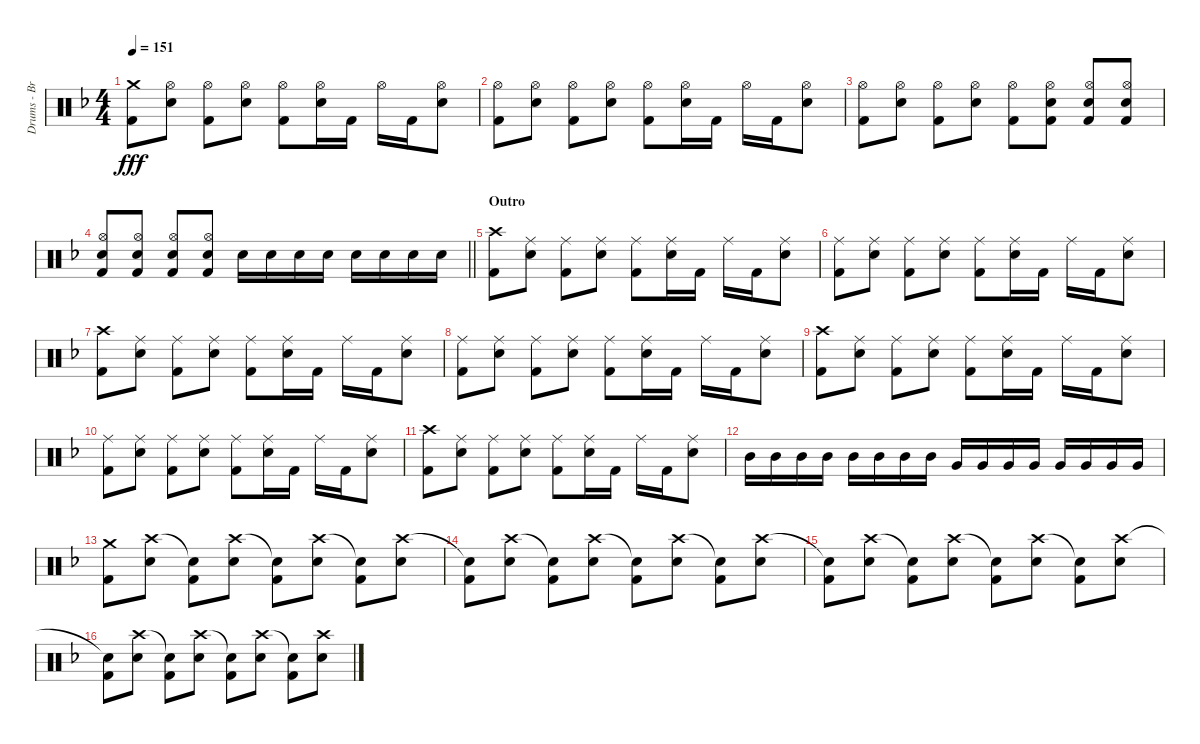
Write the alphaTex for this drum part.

\track ("Drums - Brooks Wackerman" "Drums - Br") {instrument percussion}
\staff {score}
\articulation defaults
\ts (4 4)
\tempo 151
\clef neutral
\ks f
("Crash medium (hit)" "Kick (hit) 2").8{dy fff} ("Hi-Hat (open)" "Snare (hit) 2").8 ("Hi-Hat (open)" "Kick (hit) 2").8 ("Hi-Hat (open)" "Snare (hit) 2").8 ("Hi-Hat (open)" "Kick (hit) 2").8 ("Hi-Hat (open)" "Snare (hit) 2").16 "Kick (hit) 2".16 "Hi-Hat (open)".16 "Kick (hit) 2".16 ("Hi-Hat (open)" "Snare (hit) 2").8 |
("Hi-Hat (open)" "Kick (hit) 2").8 ("Hi-Hat (open)" "Snare (hit) 2").8 ("Hi-Hat (open)" "Kick (hit) 2").8 ("Hi-Hat (open)" "Snare (hit) 2").8 ("Hi-Hat (open)" "Kick (hit) 2").8 ("Hi-Hat (open)" "Snare (hit) 2").16 "Kick (hit) 2".16 "Hi-Hat (open)".16 "Kick (hit) 2".16 ("Hi-Hat (open)" "Snare (hit) 2").8 |
("Hi-Hat (open)" "Kick (hit) 2").8 ("Hi-Hat (open)" "Snare (hit) 2").8 ("Hi-Hat (open)" "Kick (hit) 2").8 ("Hi-Hat (open)" "Snare (hit) 2").8 ("Hi-Hat (open)" "Kick (hit) 2").8 ("Hi-Hat (open)" "Snare (hit) 2" "Kick (hit) 2").8 ("Hi-Hat (open)" "Snare (hit) 2" "Kick (hit) 2").8 ("Hi-Hat (open)" "Snare (hit) 2" "Kick (hit) 2").8 |
\barLineRight lightlight
("Hi-Hat (open)" "Snare (hit) 2" "Kick (hit) 2").8 ("Hi-Hat (open)" "Snare (hit) 2" "Kick (hit) 2").8 ("Hi-Hat (open)" "Snare (hit) 2" "Kick (hit) 2").8 ("Hi-Hat (open)" "Snare (hit) 2" "Kick (hit) 2").8 "Snare (hit) 2".16 "Snare (hit) 2".16 "Snare (hit) 2".16 "Snare (hit) 2".16 "Snare (hit) 2".16 "Snare (hit) 2".16 "Snare (hit) 2".16 "Snare (hit) 2".16 |
\section ("" "Outro")
("Crash high (hit)" "Kick (hit) 2").8 ("Ride (middle)" "Snare (hit) 2").8 ("Ride (middle)" "Kick (hit) 2").8 ("Ride (middle)" "Snare (hit) 2").8 ("Ride (middle)" "Kick (hit) 2").8 ("Ride (middle)" "Snare (hit) 2").16 "Kick (hit) 2".16 "Ride (middle)".16 "Kick (hit) 2".16 ("Ride (middle)" "Snare (hit) 2").8 |
("Ride (middle)" "Kick (hit) 2").8 ("Ride (middle)" "Snare (hit) 2").8 ("Ride (middle)" "Kick (hit) 2").8 ("Ride (middle)" "Snare (hit) 2").8 ("Ride (middle)" "Kick (hit) 2").8 ("Ride (middle)" "Snare (hit) 2").16 "Kick (hit) 2".16 "Ride (middle)".16 "Kick (hit) 2".16 ("Ride (middle)" "Snare (hit) 2").8 |
("Crash high (hit)" "Kick (hit) 2").8 ("Ride (middle)" "Snare (hit) 2").8 ("Ride (middle)" "Kick (hit) 2").8 ("Ride (middle)" "Snare (hit) 2").8 ("Ride (middle)" "Kick (hit) 2").8 ("Ride (middle)" "Snare (hit) 2").16 "Kick (hit) 2".16 "Ride (middle)".16 "Kick (hit) 2".16 ("Ride (middle)" "Snare (hit) 2").8 |
("Ride (middle)" "Kick (hit) 2").8 ("Ride (middle)" "Snare (hit) 2").8 ("Ride (middle)" "Kick (hit) 2").8 ("Ride (middle)" "Snare (hit) 2").8 ("Ride (middle)" "Kick (hit) 2").8 ("Ride (middle)" "Snare (hit) 2").16 "Kick (hit) 2".16 "Ride (middle)".16 "Kick (hit) 2".16 ("Ride (middle)" "Snare (hit) 2").8 |
("Crash high (hit)" "Kick (hit) 2").8 ("Ride (middle)" "Snare (hit) 2").8 ("Ride (middle)" "Kick (hit) 2").8 ("Ride (middle)" "Snare (hit) 2").8 ("Ride (middle)" "Kick (hit) 2").8 ("Ride (middle)" "Snare (hit) 2").16 "Kick (hit) 2".16 "Ride (middle)".16 "Kick (hit) 2".16 ("Ride (middle)" "Snare (hit) 2").8 |
("Ride (middle)" "Kick (hit) 2").8 ("Ride (middle)" "Snare (hit) 2").8 ("Ride (middle)" "Kick (hit) 2").8 ("Ride (middle)" "Snare (hit) 2").8 ("Ride (middle)" "Kick (hit) 2").8 ("Ride (middle)" "Snare (hit) 2").16 "Kick (hit) 2".16 "Ride (middle)".16 "Kick (hit) 2".16 ("Ride (middle)" "Snare (hit) 2").8 |
("Crash high (hit)" "Kick (hit) 2").8 ("Ride (middle)" "Snare (hit) 2").8 ("Ride (middle)" "Kick (hit) 2").8 ("Ride (middle)" "Snare (hit) 2").8 ("Ride (middle)" "Kick (hit) 2").8 ("Ride (middle)" "Snare (hit) 2").16 "Kick (hit) 2".16 "Ride (middle)".16 "Kick (hit) 2".16 ("Ride (middle)" "Snare (hit) 2").8 |
"Mid Tom (hit)".16 "Mid Tom (hit)".16 "Mid Tom (hit)".16 "Mid Tom (hit)".16 "Mid Tom (hit)".16 "Mid Tom (hit)".16 "Mid Tom (hit)".16 "Mid Tom (hit)".16 "Very Low Tom (hit)".16 "Very Low Tom (hit)".16 "Very Low Tom (hit)".16 "Very Low Tom (hit)".16 "Very Low Tom (hit)".16 "Very Low Tom (hit)".16 "Very Low Tom (hit)".16 "Very Low Tom (hit)".16 |
("Crash medium (hit)" "Kick (hit) 2").8 ("Crash high (hit)" "Snare (hit) 2").8 ("Snare (hit)"{t} "Kick (hit) 2").8 ("Crash high (hit)" "Snare (hit) 2").8 ("Snare (hit)"{t} "Kick (hit) 2").8 ("Crash high (hit)" "Snare (hit) 2").8 ("Snare (hit)"{t} "Kick (hit) 2").8 ("Crash high (hit)" "Snare (hit) 2").8 |
("Snare (hit)"{t} "Kick (hit) 2").8 ("Crash high (hit)" "Snare (hit) 2").8 ("Snare (hit)"{t} "Kick (hit) 2").8 ("Crash high (hit)" "Snare (hit) 2").8 ("Snare (hit)"{t} "Kick (hit) 2").8 ("Crash high (hit)" "Snare (hit) 2").8 ("Snare (hit)"{t} "Kick (hit) 2").8 ("Crash high (hit)" "Snare (hit) 2").8 |
("Snare (hit)"{t} "Kick (hit) 2").8 ("Crash high (hit)" "Snare (hit) 2").8 ("Snare (hit)"{t} "Kick (hit) 2").8 ("Crash high (hit)" "Snare (hit) 2").8 ("Snare (hit)"{t} "Kick (hit) 2").8 ("Crash high (hit)" "Snare (hit) 2").8 ("Snare (hit)"{t} "Kick (hit) 2").8 ("Crash high (hit)" "Snare (hit) 2").8 |
("Snare (hit)"{t} "Kick (hit) 2").8 ("Crash high (hit)" "Snare (hit) 2").8 ("Snare (hit)"{t} "Kick (hit) 2").8 ("Crash high (hit)" "Snare (hit) 2").8 ("Snare (hit)"{t} "Kick (hit) 2").8 ("Crash high (hit)" "Snare (hit) 2").8 ("Snare (hit)"{t} "Kick (hit) 2").8 ("Crash high (hit)" "Snare (hit) 2").8
